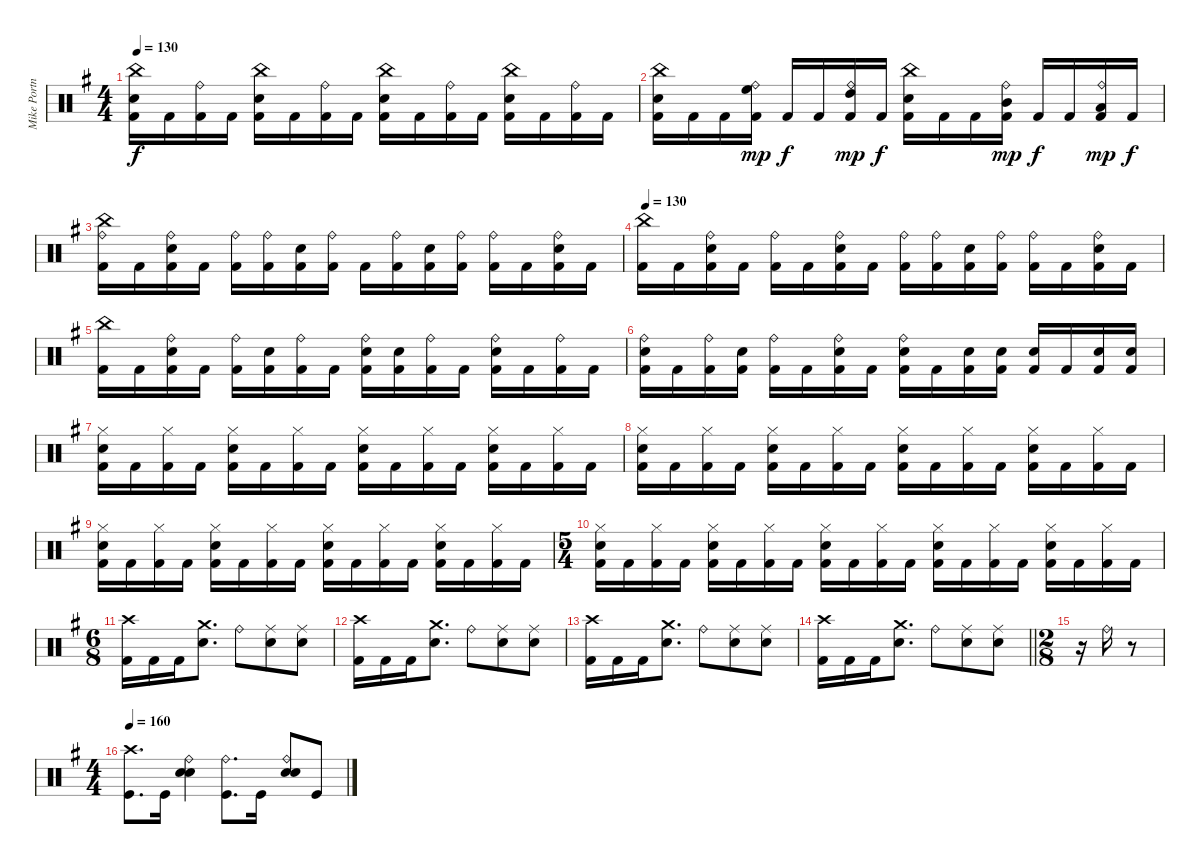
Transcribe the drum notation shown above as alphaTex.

\track ("Mike Portnoy - Drums" "Mike Portn") {instrument percussion}
\staff {score}
\articulation defaults
\ts (4 4)
\tempo 130
\clef neutral
\ks g
("China (hit)" "Electric Snare (hit)" "Kick (hit) 2").16{dy f} "Kick (hit) 2".16 ("Ride (bell)" "Kick (hit) 2").16 "Kick (hit) 2".16 ("China (hit)" "Electric Snare (hit)" "Kick (hit) 2").16 "Kick (hit) 2".16 ("Ride (bell)" "Kick (hit) 2").16 "Kick (hit) 2".16 ("China (hit)" "Electric Snare (hit)" "Kick (hit) 2").16 "Kick (hit) 2".16 ("Ride (bell)" "Kick (hit) 2").16 "Kick (hit) 2".16 ("China (hit)" "Electric Snare (hit)" "Kick (hit) 2").16 "Kick (hit) 2".16 ("Ride (bell)" "Kick (hit) 2").16 "Kick (hit) 2".16 |
("China (hit)" "Electric Snare (hit)" "Kick (hit) 2").16 "Kick (hit) 2".16 "Kick (hit) 2".16 ("High Floor Tom (hit)" "Ride (bell)" "Kick (hit) 2").16{dy mp} "Kick (hit) 2".16{dy f} "Kick (hit) 2".16 ("High Tom (hit)" "Ride (bell)" "Kick (hit) 2").16{dy mp} "Kick (hit) 2".16{dy f} ("China (hit)" "Electric Snare (hit)" "Kick (hit) 2").16 "Kick (hit) 2".16 "Kick (hit) 2".16 ("Mid Tom (hit)" "Ride (bell)" "Kick (hit) 2").16{dy mp} "Kick (hit) 2".16{dy f} "Kick (hit) 2".16 ("Low Tom (hit)" "Ride (bell)" "Kick (hit) 2").16{dy mp} "Kick (hit) 2".16{dy f} |
("China (hit)" "Ride (bell)" "Kick (hit) 2").16 "Kick (hit) 2".16 ("Ride (bell)" "Electric Snare (hit)" "Kick (hit) 2").16 "Kick (hit) 2".16 ("Ride (bell)" "Kick (hit) 2").16 ("Ride (bell)" "Kick (hit) 2").16 ("Electric Snare (hit)" "Kick (hit) 2").16 ("Ride (bell)" "Kick (hit) 2").16 "Kick (hit) 2".16 ("Ride (bell)" "Kick (hit) 2").16 ("Electric Snare (hit)" "Kick (hit) 2").16 ("Ride (bell)" "Kick (hit) 2").16 ("Ride (bell)" "Kick (hit) 2").16 "Kick (hit) 2".16 ("Ride (bell)" "Electric Snare (hit)" "Kick (hit) 2").16 "Kick (hit) 2".16 |
\tempo 130
("China (hit)" "Kick (hit) 2").16 "Kick (hit) 2".16 ("Ride (bell)" "Electric Snare (hit)" "Kick (hit) 2").16 "Kick (hit) 2".16 ("Ride (bell)" "Kick (hit) 2").16 "Kick (hit) 2".16 ("Ride (bell)" "Electric Snare (hit)" "Kick (hit) 2").16 "Kick (hit) 2".16 ("Ride (bell)" "Kick (hit) 2").16 ("Ride (bell)" "Kick (hit) 2").16 ("Electric Snare (hit)" "Kick (hit) 2").16 ("Ride (bell)" "Kick (hit) 2").16 ("Ride (bell)" "Kick (hit) 2").16 "Kick (hit) 2".16 ("Ride (bell)" "Electric Snare (hit)" "Kick (hit) 2").16 "Kick (hit) 2".16 |
("China (hit)" "Kick (hit) 2").16 "Kick (hit) 2".16 ("Ride (bell)" "Electric Snare (hit)" "Kick (hit) 2").16 "Kick (hit) 2".16 ("Ride (bell)" "Kick (hit) 2").16 ("Electric Snare (hit)" "Kick (hit) 2").16 ("Ride (bell)" "Kick (hit) 2").16 "Kick (hit) 2".16 ("Ride (bell)" "Electric Snare (hit)" "Kick (hit) 2").16 ("Electric Snare (hit)" "Kick (hit) 2").16 ("Ride (bell)" "Kick (hit) 2").16 "Kick (hit) 2".16 ("Ride (bell)" "Electric Snare (hit)" "Kick (hit) 2").16 "Kick (hit) 2".16 ("Ride (bell)" "Kick (hit) 2").16 "Kick (hit) 2".16 |
("Ride (bell)" "Electric Snare (hit)" "Kick (hit) 2").16 "Kick (hit) 2".16 ("Ride (bell)" "Kick (hit) 2").16 ("Electric Snare (hit)" "Kick (hit) 2").16 ("Ride (bell)" "Kick (hit) 2").16 "Kick (hit) 2".16 ("Ride (bell)" "Electric Snare (hit)" "Kick (hit) 2").16 "Kick (hit) 2".16 ("Ride (bell)" "Electric Snare (hit)" "Kick (hit) 2").16 "Kick (hit) 2".16 ("Electric Snare (hit)" "Kick (hit) 2").16 ("Electric Snare (hit)" "Kick (hit) 2").16 ("Electric Snare (hit)" "Kick (hit) 2").16 "Kick (hit) 2".16 ("Electric Snare (hit)" "Kick (hit) 2").16 ("Electric Snare (hit)" "Kick (hit) 2").16 |
("Hi-Hat (closed)" "Electric Snare (hit)" "Kick (hit) 2").16 "Kick (hit) 2".16 ("Hi-Hat (closed)" "Kick (hit) 2").16 "Kick (hit) 2".16 ("Hi-Hat (closed)" "Electric Snare (hit)" "Kick (hit) 2").16 "Kick (hit) 2".16 ("Hi-Hat (closed)" "Kick (hit) 2").16 "Kick (hit) 2".16 ("Hi-Hat (closed)" "Electric Snare (hit)" "Kick (hit) 2").16 "Kick (hit) 2".16 ("Hi-Hat (closed)" "Kick (hit) 2").16 "Kick (hit) 2".16 ("Hi-Hat (closed)" "Electric Snare (hit)" "Kick (hit) 2").16 "Kick (hit) 2".16 ("Hi-Hat (closed)" "Kick (hit) 2").16 "Kick (hit) 2".16 |
("Hi-Hat (closed)" "Electric Snare (hit)" "Kick (hit) 2").16 "Kick (hit) 2".16 ("Hi-Hat (closed)" "Kick (hit) 2").16 "Kick (hit) 2".16 ("Hi-Hat (closed)" "Electric Snare (hit)" "Kick (hit) 2").16 "Kick (hit) 2".16 ("Hi-Hat (closed)" "Kick (hit) 2").16 "Kick (hit) 2".16 ("Hi-Hat (closed)" "Electric Snare (hit)" "Kick (hit) 2").16 "Kick (hit) 2".16 ("Hi-Hat (closed)" "Kick (hit) 2").16 "Kick (hit) 2".16 ("Hi-Hat (closed)" "Electric Snare (hit)" "Kick (hit) 2").16 "Kick (hit) 2".16 ("Hi-Hat (closed)" "Kick (hit) 2").16 "Kick (hit) 2".16 |
("Hi-Hat (closed)" "Electric Snare (hit)" "Kick (hit) 2").16 "Kick (hit) 2".16 ("Hi-Hat (closed)" "Kick (hit) 2").16 "Kick (hit) 2".16 ("Hi-Hat (closed)" "Electric Snare (hit)" "Kick (hit) 2").16 "Kick (hit) 2".16 ("Hi-Hat (closed)" "Kick (hit) 2").16 "Kick (hit) 2".16 ("Hi-Hat (closed)" "Electric Snare (hit)" "Kick (hit) 2").16 "Kick (hit) 2".16 ("Hi-Hat (closed)" "Kick (hit) 2").16 "Kick (hit) 2".16 ("Hi-Hat (closed)" "Electric Snare (hit)" "Kick (hit) 2").16 "Kick (hit) 2".16 ("Hi-Hat (closed)" "Kick (hit) 2").16 "Kick (hit) 2".16 |
\ts (5 4)
("Hi-Hat (closed)" "Electric Snare (hit)" "Kick (hit) 2").16 "Kick (hit) 2".16 ("Hi-Hat (closed)" "Kick (hit) 2").16 "Kick (hit) 2".16 ("Hi-Hat (closed)" "Electric Snare (hit)" "Kick (hit) 2").16 "Kick (hit) 2".16 ("Hi-Hat (closed)" "Kick (hit) 2").16 "Kick (hit) 2".16 ("Hi-Hat (closed)" "Electric Snare (hit)" "Kick (hit) 2").16 "Kick (hit) 2".16 ("Hi-Hat (closed)" "Kick (hit) 2").16 "Kick (hit) 2".16 ("Hi-Hat (closed)" "Electric Snare (hit)" "Kick (hit) 2").16 "Kick (hit) 2".16 ("Hi-Hat (closed)" "Kick (hit) 2").16 "Kick (hit) 2".16 ("Hi-Hat (closed)" "Electric Snare (hit)" "Kick (hit) 2").16 "Kick (hit) 2".16 ("Hi-Hat (closed)" "Kick (hit) 2").16 "Kick (hit) 2".16 |
\ts (6 8)
("Crash high (hit)" "Kick (hit) 2").16 "Kick (hit) 2".16 "Kick (hit) 2".16 ("Crash medium (hit)" "Electric Snare (hit)").8{d} "Ride (bell)".8 ("Ride (middle)" "Electric Snare (hit)").8 ("Ride (middle)" "Electric Snare (hit)").8 |
("Crash high (hit)" "Kick (hit) 2").16 "Kick (hit) 2".16 "Kick (hit) 2".16 ("Crash medium (hit)" "Electric Snare (hit)").8{d} "Ride (bell)".8 ("Ride (middle)" "Electric Snare (hit)").8 ("Ride (middle)" "Electric Snare (hit)").8 |
("Crash high (hit)" "Kick (hit) 2").16 "Kick (hit) 2".16 "Kick (hit) 2".16 ("Crash medium (hit)" "Electric Snare (hit)").8{d} "Ride (bell)".8 ("Ride (middle)" "Electric Snare (hit)").8 ("Ride (middle)" "Electric Snare (hit)").8 |
\barLineRight lightlight
("Crash high (hit)" "Kick (hit) 2").16 "Kick (hit) 2".16 "Kick (hit) 2".16 ("Crash medium (hit)" "Electric Snare (hit)").8{d} "Ride (bell)".8 ("Ride (middle)" "Electric Snare (hit)").8 ("Ride (middle)" "Electric Snare (hit)").8 |
\ts (2 8)
r.16 "Ride (bell)".16 r.8 |
\ts (4 4)
\tempo 160
("Crash high (hit)" "Kick (hit)").8{d} "Kick (hit)".16 ("Ride (bell)" "Snare (hit) 2" "Electric Snare (hit)").4 ("Ride (bell)" "Kick (hit)").8{d} "Kick (hit)".16 ("Ride (bell)" "Snare (hit) 2" "Electric Snare (hit)").8 "Kick (hit)".8
